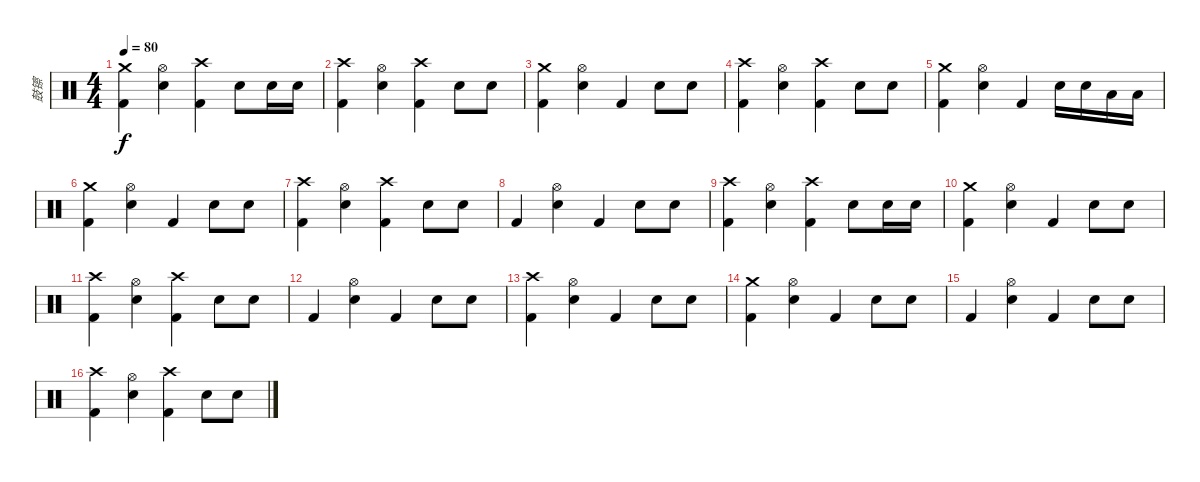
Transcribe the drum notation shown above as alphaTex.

\track ("鼓镲" "鼓镲") {instrument percussion}
\staff {score}
\articulation defaults
\ts (4 4)
\tempo 80
\clef neutral
\ks c
("Crash medium (hit)" "Kick (hit) 2").4{dy f} ("Hi-Hat (open)" "Electric Snare (hit)").4 ("Crash high (hit)" "Kick (hit) 2").4 "Electric Snare (hit)".8 "Electric Snare (hit)".16 "Electric Snare (hit)".16 |
("Crash high (hit)" "Kick (hit) 2").4 ("Hi-Hat (open)" "Electric Snare (hit)").4 ("Crash high (hit)" "Kick (hit) 2").4 "Electric Snare (hit)".8 "Electric Snare (hit)".8 |
("Crash medium (hit)" "Kick (hit) 2").4 ("Hi-Hat (open)" "Electric Snare (hit)").4 "Kick (hit) 2".4 "Electric Snare (hit)".8 "Electric Snare (hit)".8 |
("Crash high (hit)" "Kick (hit) 2").4 ("Hi-Hat (open)" "Electric Snare (hit)").4 ("Crash high (hit)" "Kick (hit) 2").4 "Electric Snare (hit)".8 "Electric Snare (hit)".8 |
("Crash medium (hit)" "Kick (hit) 2").4 ("Hi-Hat (open)" "Electric Snare (hit)").4 "Kick (hit) 2".4 "Electric Snare (hit)".16 "Electric Snare (hit)".16 "Low Tom (hit)".16 "Low Tom (hit)".16 |
("Crash medium (hit)" "Kick (hit) 2").4 ("Hi-Hat (open)" "Electric Snare (hit)").4 "Kick (hit) 2".4 "Electric Snare (hit)".8 "Electric Snare (hit)".8 |
("Crash high (hit)" "Kick (hit) 2").4 ("Hi-Hat (open)" "Electric Snare (hit)").4 ("Crash high (hit)" "Kick (hit) 2").4 "Electric Snare (hit)".8 "Electric Snare (hit)".8 |
"Kick (hit) 2".4 ("Hi-Hat (open)" "Electric Snare (hit)").4 "Kick (hit) 2".4 "Electric Snare (hit)".8 "Electric Snare (hit)".8 |
("Crash high (hit)" "Kick (hit) 2").4 ("Hi-Hat (open)" "Electric Snare (hit)").4 ("Crash high (hit)" "Kick (hit) 2").4 "Electric Snare (hit)".8 "Electric Snare (hit)".16 "Electric Snare (hit)".16 |
("Crash medium (hit)" "Kick (hit) 2").4 ("Hi-Hat (open)" "Electric Snare (hit)").4 "Kick (hit) 2".4 "Electric Snare (hit)".8 "Electric Snare (hit)".8 |
("Crash high (hit)" "Kick (hit) 2").4 ("Hi-Hat (open)" "Electric Snare (hit)").4 ("Crash high (hit)" "Kick (hit) 2").4 "Electric Snare (hit)".8 "Electric Snare (hit)".8 |
"Kick (hit) 2".4 ("Hi-Hat (open)" "Electric Snare (hit)").4 "Kick (hit) 2".4 "Electric Snare (hit)".8 "Electric Snare (hit)".8 |
("Crash high (hit)" "Kick (hit) 2").4 ("Hi-Hat (open)" "Electric Snare (hit)").4 "Kick (hit) 2".4 "Electric Snare (hit)".8 "Electric Snare (hit)".8 |
("Crash medium (hit)" "Kick (hit) 2").4 ("Hi-Hat (open)" "Electric Snare (hit)").4 "Kick (hit) 2".4 "Electric Snare (hit)".8 "Electric Snare (hit)".8 |
"Kick (hit) 2".4 ("Hi-Hat (open)" "Electric Snare (hit)").4 "Kick (hit) 2".4 "Electric Snare (hit)".8 "Electric Snare (hit)".8 |
("Crash high (hit)" "Kick (hit) 2").4 ("Hi-Hat (open)" "Electric Snare (hit)").4 ("Crash high (hit)" "Kick (hit) 2").4 "Electric Snare (hit)".8 "Electric Snare (hit)".8
